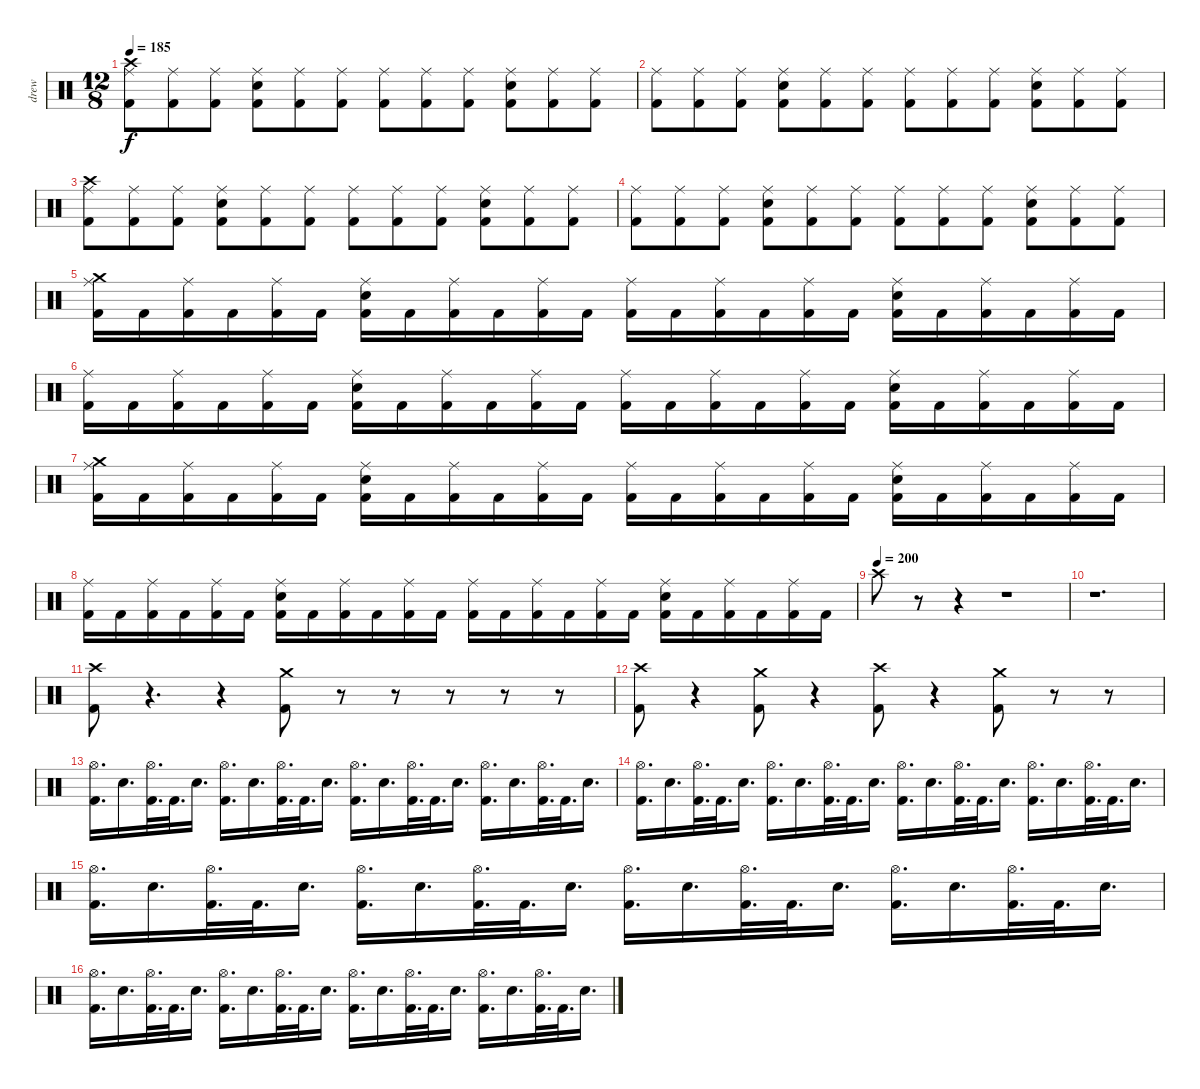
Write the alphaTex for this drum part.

\track ("drew" "drew") {instrument percussion}
\staff {score}
\articulation defaults
\ts (12 8)
\tempo 185
\clef neutral
\ks c
("Crash high (hit)" "Ride (middle)" "Kick (hit) 2").8{dy f} ("Ride (middle)" "Kick (hit) 2").8 ("Ride (middle)" "Kick (hit) 2").8 ("Snare (hit) 2" "Ride (middle)" "Kick (hit) 2").8 ("Ride (middle)" "Kick (hit) 2").8 ("Ride (middle)" "Kick (hit) 2").8 ("Ride (middle)" "Kick (hit) 2").8 ("Ride (middle)" "Kick (hit) 2").8 ("Ride (middle)" "Kick (hit) 2").8 ("Snare (hit) 2" "Ride (middle)" "Kick (hit) 2").8 ("Ride (middle)" "Kick (hit) 2").8 ("Ride (middle)" "Kick (hit) 2").8 |
("Ride (middle)" "Kick (hit) 2").8 ("Ride (middle)" "Kick (hit) 2").8 ("Ride (middle)" "Kick (hit) 2").8 ("Snare (hit) 2" "Ride (middle)" "Kick (hit) 2").8 ("Ride (middle)" "Kick (hit) 2").8 ("Ride (middle)" "Kick (hit) 2").8 ("Ride (middle)" "Kick (hit) 2").8 ("Ride (middle)" "Kick (hit) 2").8 ("Ride (middle)" "Kick (hit) 2").8 ("Snare (hit) 2" "Ride (middle)" "Kick (hit) 2").8 ("Ride (middle)" "Kick (hit) 2").8 ("Ride (middle)" "Kick (hit) 2").8 |
("Crash high (hit)" "Ride (middle)" "Kick (hit) 2").8 ("Ride (middle)" "Kick (hit) 2").8 ("Ride (middle)" "Kick (hit) 2").8 ("Snare (hit) 2" "Ride (middle)" "Kick (hit) 2").8 ("Ride (middle)" "Kick (hit) 2").8 ("Ride (middle)" "Kick (hit) 2").8 ("Ride (middle)" "Kick (hit) 2").8 ("Ride (middle)" "Kick (hit) 2").8 ("Ride (middle)" "Kick (hit) 2").8 ("Snare (hit) 2" "Ride (middle)" "Kick (hit) 2").8 ("Ride (middle)" "Kick (hit) 2").8 ("Ride (middle)" "Kick (hit) 2").8 |
("Ride (middle)" "Kick (hit) 2").8 ("Ride (middle)" "Kick (hit) 2").8 ("Ride (middle)" "Kick (hit) 2").8 ("Snare (hit) 2" "Ride (middle)" "Kick (hit) 2").8 ("Ride (middle)" "Kick (hit) 2").8 ("Ride (middle)" "Kick (hit) 2").8 ("Ride (middle)" "Kick (hit) 2").8 ("Ride (middle)" "Kick (hit) 2").8 ("Ride (middle)" "Kick (hit) 2").8 ("Snare (hit) 2" "Ride (middle)" "Kick (hit) 2").8 ("Ride (middle)" "Kick (hit) 2").8 ("Ride (middle)" "Kick (hit) 2").8 |
("Crash medium (hit)" "Ride (middle)" "Kick (hit) 2").16 "Kick (hit) 2".16 ("Ride (middle)" "Kick (hit) 2").16 "Kick (hit) 2".16 ("Ride (middle)" "Kick (hit) 2").16 "Kick (hit) 2".16 ("Snare (hit) 2" "Ride (middle)" "Kick (hit) 2").16 "Kick (hit) 2".16 ("Ride (middle)" "Kick (hit) 2").16 "Kick (hit) 2".16 ("Ride (middle)" "Kick (hit) 2").16 "Kick (hit) 2".16 ("Ride (middle)" "Kick (hit) 2").16 "Kick (hit) 2".16 ("Ride (middle)" "Kick (hit) 2").16 "Kick (hit) 2".16 ("Ride (middle)" "Kick (hit) 2").16 "Kick (hit) 2".16 ("Snare (hit) 2" "Ride (middle)" "Kick (hit) 2").16 "Kick (hit) 2".16 ("Ride (middle)" "Kick (hit) 2").16 "Kick (hit) 2".16 ("Ride (middle)" "Kick (hit) 2").16 "Kick (hit) 2".16 |
("Ride (middle)" "Kick (hit) 2").16 "Kick (hit) 2".16 ("Ride (middle)" "Kick (hit) 2").16 "Kick (hit) 2".16 ("Ride (middle)" "Kick (hit) 2").16 "Kick (hit) 2".16 ("Snare (hit) 2" "Ride (middle)" "Kick (hit) 2").16 "Kick (hit) 2".16 ("Ride (middle)" "Kick (hit) 2").16 "Kick (hit) 2".16 ("Ride (middle)" "Kick (hit) 2").16 "Kick (hit) 2".16 ("Ride (middle)" "Kick (hit) 2").16 "Kick (hit) 2".16 ("Ride (middle)" "Kick (hit) 2").16 "Kick (hit) 2".16 ("Ride (middle)" "Kick (hit) 2").16 "Kick (hit) 2".16 ("Snare (hit) 2" "Ride (middle)" "Kick (hit) 2").16 "Kick (hit) 2".16 ("Ride (middle)" "Kick (hit) 2").16 "Kick (hit) 2".16 ("Ride (middle)" "Kick (hit) 2").16 "Kick (hit) 2".16 |
("Crash medium (hit)" "Ride (middle)" "Kick (hit) 2").16 "Kick (hit) 2".16 ("Ride (middle)" "Kick (hit) 2").16 "Kick (hit) 2".16 ("Ride (middle)" "Kick (hit) 2").16 "Kick (hit) 2".16 ("Snare (hit) 2" "Ride (middle)" "Kick (hit) 2").16 "Kick (hit) 2".16 ("Ride (middle)" "Kick (hit) 2").16 "Kick (hit) 2".16 ("Ride (middle)" "Kick (hit) 2").16 "Kick (hit) 2".16 ("Ride (middle)" "Kick (hit) 2").16 "Kick (hit) 2".16 ("Ride (middle)" "Kick (hit) 2").16 "Kick (hit) 2".16 ("Ride (middle)" "Kick (hit) 2").16 "Kick (hit) 2".16 ("Snare (hit) 2" "Ride (middle)" "Kick (hit) 2").16 "Kick (hit) 2".16 ("Ride (middle)" "Kick (hit) 2").16 "Kick (hit) 2".16 ("Ride (middle)" "Kick (hit) 2").16 "Kick (hit) 2".16 |
("Ride (middle)" "Kick (hit) 2").16 "Kick (hit) 2".16 ("Ride (middle)" "Kick (hit) 2").16 "Kick (hit) 2".16 ("Ride (middle)" "Kick (hit) 2").16 "Kick (hit) 2".16 ("Snare (hit) 2" "Ride (middle)" "Kick (hit) 2").16 "Kick (hit) 2".16 ("Ride (middle)" "Kick (hit) 2").16 "Kick (hit) 2".16 ("Ride (middle)" "Kick (hit) 2").16 "Kick (hit) 2".16 ("Ride (middle)" "Kick (hit) 2").16 "Kick (hit) 2".16 ("Ride (middle)" "Kick (hit) 2").16 "Kick (hit) 2".16 ("Ride (middle)" "Kick (hit) 2").16 "Kick (hit) 2".16 ("Snare (hit) 2" "Ride (middle)" "Kick (hit) 2").16 "Kick (hit) 2".16 ("Ride (middle)" "Kick (hit) 2").16 "Kick (hit) 2".16 ("Ride (middle)" "Kick (hit) 2").16 "Kick (hit) 2".16 |
\tempo (200)
"Crash high (hit)".8 r.8 r.4 r.1 |
r.1{d} |
("Crash high (hit)" "Kick (hit) 2").8 r.4{d} r.4 ("Crash medium (hit)" "Kick (hit) 2").8 r.8 r.8 r.8 r.8 r.8 |
("Crash high (hit)" "Kick (hit) 2").8 r.4 ("Crash medium (hit)" "Kick (hit) 2").8 r.4 ("Crash high (hit)" "Kick (hit) 2").8 r.4 ("Crash medium (hit)" "Kick (hit) 2").8 r.8 r.8 |
("Hi-Hat (open)" "Kick (hit) 2").16{d} "Snare (hit) 2".16{d} ("Hi-Hat (open)" "Kick (hit) 2").32{d} "Kick (hit) 2".32{d} "Snare (hit) 2".16{d} ("Hi-Hat (open)" "Kick (hit) 2").16{d} "Snare (hit) 2".16{d} ("Hi-Hat (open)" "Kick (hit) 2").32{d} "Kick (hit) 2".32{d} "Snare (hit) 2".16{d} ("Hi-Hat (open)" "Kick (hit) 2").16{d} "Snare (hit) 2".16{d} ("Hi-Hat (open)" "Kick (hit) 2").32{d} "Kick (hit) 2".32{d} "Snare (hit) 2".16{d} ("Hi-Hat (open)" "Kick (hit) 2").16{d} "Snare (hit) 2".16{d} ("Hi-Hat (open)" "Kick (hit) 2").32{d} "Kick (hit) 2".32{d} "Snare (hit) 2".16{d} |
("Hi-Hat (open)" "Kick (hit) 2").16{d} "Snare (hit) 2".16{d} ("Hi-Hat (open)" "Kick (hit) 2").32{d} "Kick (hit) 2".32{d} "Snare (hit) 2".16{d} ("Hi-Hat (open)" "Kick (hit) 2").16{d} "Snare (hit) 2".16{d} ("Hi-Hat (open)" "Kick (hit) 2").32{d} "Kick (hit) 2".32{d} "Snare (hit) 2".16{d} ("Hi-Hat (open)" "Kick (hit) 2").16{d} "Snare (hit) 2".16{d} ("Hi-Hat (open)" "Kick (hit) 2").32{d} "Kick (hit) 2".32{d} "Snare (hit) 2".16{d} ("Hi-Hat (open)" "Kick (hit) 2").16{d} "Snare (hit) 2".16{d} ("Hi-Hat (open)" "Kick (hit) 2").32{d} "Kick (hit) 2".32{d} "Snare (hit) 2".16{d} |
("Hi-Hat (open)" "Kick (hit) 2").16{d} "Snare (hit) 2".16{d} ("Hi-Hat (open)" "Kick (hit) 2").32{d} "Kick (hit) 2".32{d} "Snare (hit) 2".16{d} ("Hi-Hat (open)" "Kick (hit) 2").16{d} "Snare (hit) 2".16{d} ("Hi-Hat (open)" "Kick (hit) 2").32{d} "Kick (hit) 2".32{d} "Snare (hit) 2".16{d} ("Hi-Hat (open)" "Kick (hit) 2").16{d} "Snare (hit) 2".16{d} ("Hi-Hat (open)" "Kick (hit) 2").32{d} "Kick (hit) 2".32{d} "Snare (hit) 2".16{d} ("Hi-Hat (open)" "Kick (hit) 2").16{d} "Snare (hit) 2".16{d} ("Hi-Hat (open)" "Kick (hit) 2").32{d} "Kick (hit) 2".32{d} "Snare (hit) 2".16{d} |
("Hi-Hat (open)" "Kick (hit) 2").16{d} "Snare (hit) 2".16{d} ("Hi-Hat (open)" "Kick (hit) 2").32{d} "Kick (hit) 2".32{d} "Snare (hit) 2".16{d} ("Hi-Hat (open)" "Kick (hit) 2").16{d} "Snare (hit) 2".16{d} ("Hi-Hat (open)" "Kick (hit) 2").32{d} "Kick (hit) 2".32{d} "Snare (hit) 2".16{d} ("Hi-Hat (open)" "Kick (hit) 2").16{d} "Snare (hit) 2".16{d} ("Hi-Hat (open)" "Kick (hit) 2").32{d} "Kick (hit) 2".32{d} "Snare (hit) 2".16{d} ("Hi-Hat (open)" "Kick (hit) 2").16{d} "Snare (hit) 2".16{d} ("Hi-Hat (open)" "Kick (hit) 2").32{d} "Kick (hit) 2".32{d} "Snare (hit) 2".16{d}
